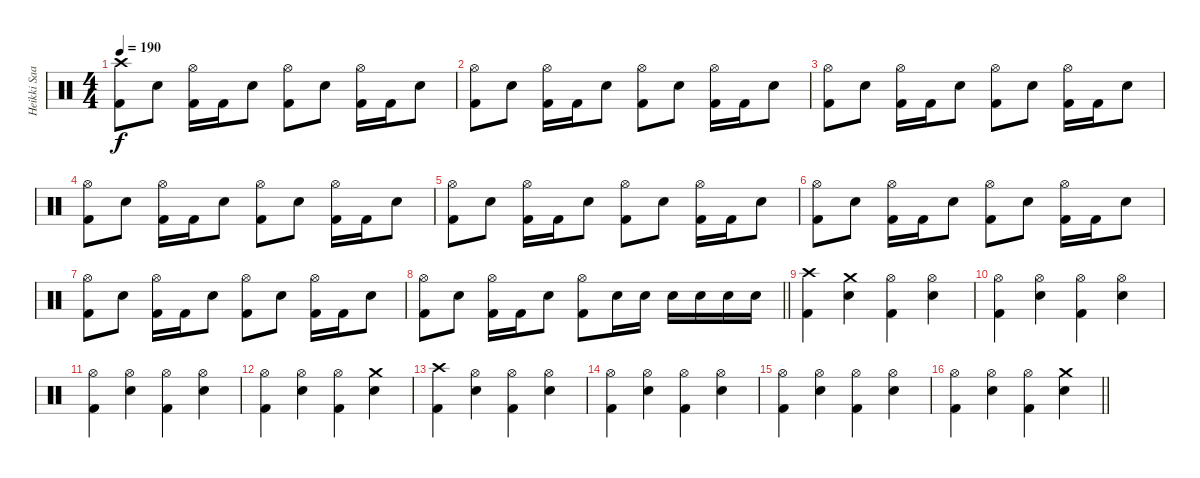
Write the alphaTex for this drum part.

\track ("Heikki Saari" "Heikki Saa") {instrument percussion}
\staff {score}
\articulation defaults
\ts (4 4)
\tempo 190
\clef neutral
\ks c
("Crash high (hit)" "Kick (hit) 2").8{dy f} "Snare (hit) 2".8 ("Hi-Hat (open)" "Kick (hit) 2").16 "Kick (hit) 2".16 "Snare (hit) 2".8 ("Hi-Hat (open)" "Kick (hit) 2").8 "Snare (hit) 2".8 ("Hi-Hat (open)" "Kick (hit) 2").16 "Kick (hit) 2".16 "Snare (hit) 2".8 |
("Hi-Hat (open)" "Kick (hit) 2").8 "Snare (hit) 2".8 ("Hi-Hat (open)" "Kick (hit) 2").16 "Kick (hit) 2".16 "Snare (hit) 2".8 ("Hi-Hat (open)" "Kick (hit) 2").8 "Snare (hit) 2".8 ("Hi-Hat (open)" "Kick (hit) 2").16 "Kick (hit) 2".16 "Snare (hit) 2".8 |
("Hi-Hat (open)" "Kick (hit) 2").8 "Snare (hit) 2".8 ("Hi-Hat (open)" "Kick (hit) 2").16 "Kick (hit) 2".16 "Snare (hit) 2".8 ("Hi-Hat (open)" "Kick (hit) 2").8 "Snare (hit) 2".8 ("Hi-Hat (open)" "Kick (hit) 2").16 "Kick (hit) 2".16 "Snare (hit) 2".8 |
("Hi-Hat (open)" "Kick (hit) 2").8 "Snare (hit) 2".8 ("Hi-Hat (open)" "Kick (hit) 2").16 "Kick (hit) 2".16 "Snare (hit) 2".8 ("Hi-Hat (open)" "Kick (hit) 2").8 "Snare (hit) 2".8 ("Hi-Hat (open)" "Kick (hit) 2").16 "Kick (hit) 2".16 "Snare (hit) 2".8 |
("Hi-Hat (open)" "Kick (hit) 2").8 "Snare (hit) 2".8 ("Hi-Hat (open)" "Kick (hit) 2").16 "Kick (hit) 2".16 "Snare (hit) 2".8 ("Hi-Hat (open)" "Kick (hit) 2").8 "Snare (hit) 2".8 ("Hi-Hat (open)" "Kick (hit) 2").16 "Kick (hit) 2".16 "Snare (hit) 2".8 |
("Hi-Hat (open)" "Kick (hit) 2").8 "Snare (hit) 2".8 ("Hi-Hat (open)" "Kick (hit) 2").16 "Kick (hit) 2".16 "Snare (hit) 2".8 ("Hi-Hat (open)" "Kick (hit) 2").8 "Snare (hit) 2".8 ("Hi-Hat (open)" "Kick (hit) 2").16 "Kick (hit) 2".16 "Snare (hit) 2".8 |
("Hi-Hat (open)" "Kick (hit) 2").8 "Snare (hit) 2".8 ("Hi-Hat (open)" "Kick (hit) 2").16 "Kick (hit) 2".16 "Snare (hit) 2".8 ("Hi-Hat (open)" "Kick (hit) 2").8 "Snare (hit) 2".8 ("Hi-Hat (open)" "Kick (hit) 2").16 "Kick (hit) 2".16 "Snare (hit) 2".8 |
\barLineRight lightlight
("Hi-Hat (open)" "Kick (hit) 2").8 "Snare (hit) 2".8 ("Hi-Hat (open)" "Kick (hit) 2").16 "Kick (hit) 2".16 "Snare (hit) 2".8 ("Hi-Hat (open)" "Kick (hit) 2").8 "Snare (hit) 2".16 "Snare (hit) 2".16 "Snare (hit) 2".16 "Snare (hit) 2".16 "Snare (hit) 2".16 "Snare (hit) 2".16 |
("Crash high (hit)" "Kick (hit) 2").4 ("Crash medium (hit)" "Snare (hit) 2").4 ("Hi-Hat (open)" "Kick (hit) 2").4 ("Hi-Hat (open)" "Snare (hit) 2").4 |
("Hi-Hat (open)" "Kick (hit) 2").4 ("Hi-Hat (open)" "Snare (hit) 2").4 ("Hi-Hat (open)" "Kick (hit) 2").4 ("Hi-Hat (open)" "Snare (hit) 2").4 |
("Hi-Hat (open)" "Kick (hit) 2").4 ("Hi-Hat (open)" "Snare (hit) 2").4 ("Hi-Hat (open)" "Kick (hit) 2").4 ("Hi-Hat (open)" "Snare (hit) 2").4 |
("Hi-Hat (open)" "Kick (hit) 2").4 ("Hi-Hat (open)" "Snare (hit) 2").4 ("Hi-Hat (open)" "Kick (hit) 2").4 ("Crash medium (hit)" "Snare (hit) 2").4 |
("Crash high (hit)" "Kick (hit) 2").4 ("Hi-Hat (open)" "Snare (hit) 2").4 ("Hi-Hat (open)" "Kick (hit) 2").4 ("Hi-Hat (open)" "Snare (hit) 2").4 |
("Hi-Hat (open)" "Kick (hit) 2").4 ("Hi-Hat (open)" "Snare (hit) 2").4 ("Hi-Hat (open)" "Kick (hit) 2").4 ("Hi-Hat (open)" "Snare (hit) 2").4 |
("Hi-Hat (open)" "Kick (hit) 2").4 ("Hi-Hat (open)" "Snare (hit) 2").4 ("Hi-Hat (open)" "Kick (hit) 2").4 ("Hi-Hat (open)" "Snare (hit) 2").4 |
\barLineRight lightlight
("Hi-Hat (open)" "Kick (hit) 2").4 ("Hi-Hat (open)" "Snare (hit) 2").4 ("Hi-Hat (open)" "Kick (hit) 2").4 ("Crash medium (hit)" "Snare (hit) 2").4
